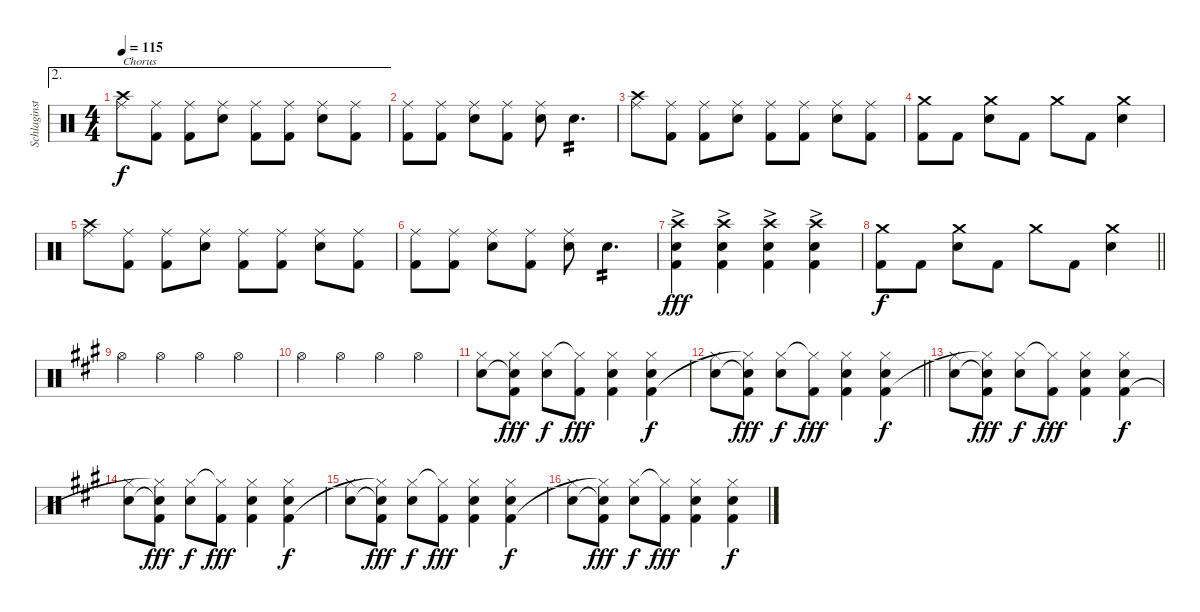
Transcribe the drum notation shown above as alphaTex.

\track ("Schlaginstrumente - Auswahl" "Schlaginst") {instrument percussion}
\staff {score}
\articulation defaults
\ae 2
\ts (4 4)
\tempo 115
\clef neutral
\ks c
("Ride (middle)" "Crash high (hit)").8{txt "Chorus" dy f} ("Ride (middle)" "Kick (hit) 2").8 ("Ride (middle)" "Kick (hit) 2").8 ("Ride (middle)" "Snare (hit) 2").8 ("Ride (middle)" "Kick (hit) 2").8 ("Ride (middle)" "Kick (hit) 2").8 ("Ride (middle)" "Snare (hit) 2").8 ("Ride (middle)" "Kick (hit) 2").8 |
("Ride (middle)" "Kick (hit) 2").8 ("Ride (middle)" "Kick (hit) 2").8 ("Ride (middle)" "Snare (hit) 2").8 ("Ride (middle)" "Kick (hit) 2").8 ("Ride (middle)" "Snare (hit) 2").8 "Snare (hit) 2".4{d tp 2} |
("Ride (middle)" "Crash high (hit)").8 ("Ride (middle)" "Kick (hit) 2").8 ("Ride (middle)" "Kick (hit) 2").8 ("Ride (middle)" "Snare (hit) 2").8 ("Ride (middle)" "Kick (hit) 2").8 ("Ride (middle)" "Kick (hit) 2").8 ("Ride (middle)" "Snare (hit) 2").8 ("Ride (middle)" "Kick (hit) 2").8 |
("Crash medium (hit)" "Kick (hit) 2").8 "Kick (hit) 2".8 ("Crash medium (hit)" "Snare (hit) 2").8 "Kick (hit) 2".8 "Crash medium (hit)".8 "Kick (hit) 2".8 ("Crash medium (hit)" "Snare (hit) 2").4 |
("Ride (middle)" "Crash high (hit)").8 ("Ride (middle)" "Kick (hit) 2").8 ("Ride (middle)" "Kick (hit) 2").8 ("Ride (middle)" "Snare (hit) 2").8 ("Ride (middle)" "Kick (hit) 2").8 ("Ride (middle)" "Kick (hit) 2").8 ("Ride (middle)" "Snare (hit) 2").8 ("Ride (middle)" "Kick (hit) 2").8 |
("Ride (middle)" "Kick (hit) 2").8 ("Ride (middle)" "Kick (hit) 2").8 ("Ride (middle)" "Snare (hit) 2").8 ("Ride (middle)" "Kick (hit) 2").8 ("Ride (middle)" "Snare (hit) 2").8 "Snare (hit) 2".4{d tp 2} |
("Crash high (hit)"{ac} "Snare (hit) 2"{ac} "Kick (hit) 2"{ac}).4{dy fff} ("Crash high (hit)"{ac} "Snare (hit) 2"{ac} "Kick (hit) 2"{ac}).4 ("Crash high (hit)"{ac} "Snare (hit) 2"{ac} "Kick (hit) 2"{ac}).4 ("Crash high (hit)"{ac} "Snare (hit) 2"{ac} "Kick (hit) 2"{ac}).4 |
\barLineRight lightlight
("Crash medium (hit)" "Kick (hit) 2").8{dy f} "Kick (hit) 2".8 ("Crash medium (hit)" "Snare (hit) 2").8 "Kick (hit) 2".8 "Crash medium (hit)".8 "Kick (hit) 2".8 ("Crash medium (hit)" "Snare (hit) 2").4 |
\ks a "Hi-Hat (open)".4 "Hi-Hat (open)".4 "Hi-Hat (open)".4 "Hi-Hat (open)".4
|
"Hi-Hat (open)".4 "Hi-Hat (open)".4 "Hi-Hat (open)".4 "Hi-Hat (open)".4 |
("Snare (hit) 2" "Hi-Hat (closed)").8 ("Snare (hit) 2"{t} "Kick (hit) 2" "Hi-Hat (closed)").8{dy fff} ("Snare (hit) 2" "Hi-Hat (closed)").8{dy f} ("Kick (hit) 2" "Hi-Hat (closed)"{t}).8{dy fff} ("Hi-Hat (closed)" "Snare (hit) 2" "Kick (hit) 2").4 ("Hi-Hat (closed)" "Snare (hit) 2" "Kick (hit) 2").4{dy f} |
\barLineRight lightlight
("Snare (hit) 2" "Hi-Hat (closed)").8 ("Snare (hit) 2"{t} "Kick (hit) 2" "Hi-Hat (closed)"{t}).8{dy fff} ("Snare (hit) 2" "Hi-Hat (closed)").8{dy f} ("Kick (hit) 2" "Hi-Hat (closed)"{t}).8{dy fff} ("Hi-Hat (closed)" "Snare (hit) 2" "Kick (hit) 2").4 ("Hi-Hat (closed)" "Snare (hit) 2" "Kick (hit) 2").4{dy f} |
("Snare (hit) 2" "Hi-Hat (closed)").8 ("Snare (hit) 2"{t} "Kick (hit) 2" "Hi-Hat (closed)"{t}).8{dy fff} ("Snare (hit) 2" "Hi-Hat (closed)").8{dy f} ("Kick (hit) 2" "Hi-Hat (closed)"{t}).8{dy fff} ("Hi-Hat (closed)" "Snare (hit) 2" "Kick (hit) 2").4 ("Hi-Hat (closed)" "Snare (hit) 2" "Kick (hit) 2").4{dy f} |
("Snare (hit) 2" "Hi-Hat (closed)").8 ("Snare (hit) 2"{t} "Kick (hit) 2" "Hi-Hat (closed)"{t}).8{dy fff} ("Snare (hit) 2" "Hi-Hat (closed)").8{dy f} ("Kick (hit) 2" "Hi-Hat (closed)"{t}).8{dy fff} ("Hi-Hat (closed)" "Snare (hit) 2" "Kick (hit) 2").4 ("Hi-Hat (closed)" "Snare (hit) 2" "Kick (hit) 2").4{dy f} |
("Snare (hit) 2" "Hi-Hat (closed)").8 ("Snare (hit) 2"{t} "Kick (hit) 2" "Hi-Hat (closed)"{t}).8{dy fff} ("Snare (hit) 2" "Hi-Hat (closed)").8{dy f} ("Kick (hit) 2" "Hi-Hat (closed)"{t}).8{dy fff} ("Hi-Hat (closed)" "Snare (hit) 2" "Kick (hit) 2").4 ("Hi-Hat (closed)" "Snare (hit) 2" "Kick (hit) 2").4{dy f} |
("Snare (hit) 2" "Hi-Hat (closed)").8 ("Snare (hit) 2"{t} "Kick (hit) 2" "Hi-Hat (closed)"{t}).8{dy fff} ("Snare (hit) 2" "Hi-Hat (closed)").8{dy f} ("Kick (hit) 2" "Hi-Hat (closed)"{t}).8{dy fff} ("Hi-Hat (closed)" "Snare (hit) 2" "Kick (hit) 2").4 ("Hi-Hat (closed)" "Snare (hit) 2" "Kick (hit) 2").4{dy f}
